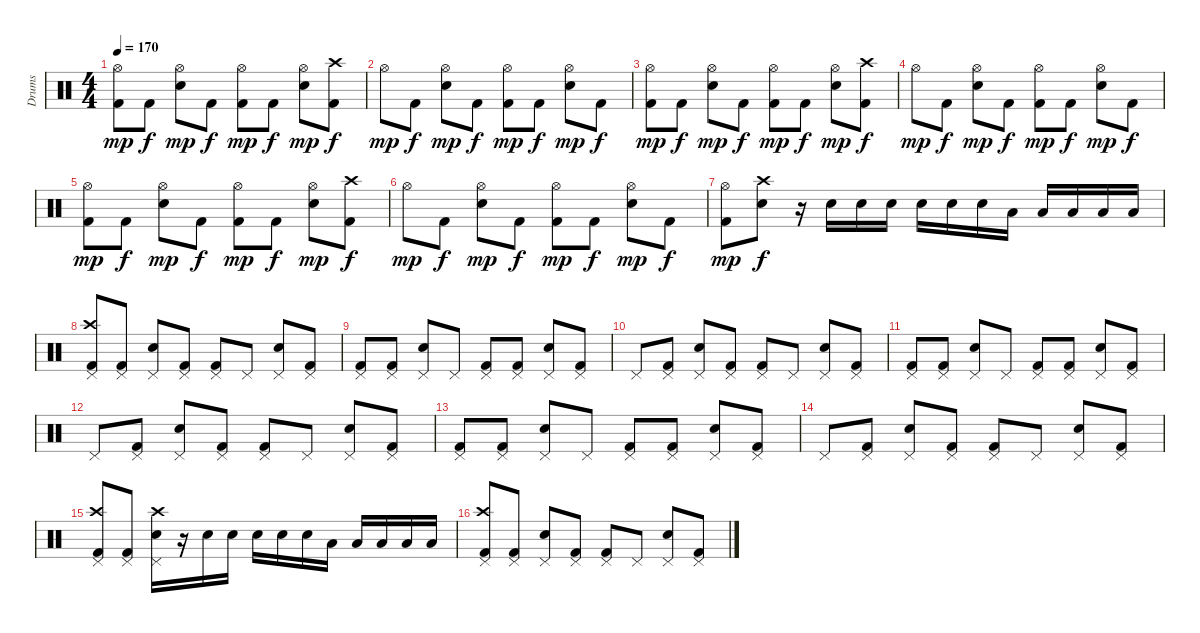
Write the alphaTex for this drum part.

\track ("Drums" "Drums") {instrument percussion}
\staff {score}
\articulation defaults
\ts (4 4)
\tempo 170
\clef neutral
\ks c
("Hi-Hat (open)" "Kick (hit) 2").8{dy mp} "Kick (hit) 2".8{dy f} ("Hi-Hat (open)" "Electric Snare (hit)").8{dy mp} "Kick (hit) 2".8{dy f} ("Hi-Hat (open)" "Kick (hit) 2").8{dy mp} "Kick (hit) 2".8{dy f} ("Hi-Hat (open)" "Electric Snare (hit)").8{dy mp} ("Crash high (hit)" "Kick (hit) 2").8{dy f} |
"Hi-Hat (open)".8{dy mp} "Kick (hit) 2".8{dy f} ("Hi-Hat (open)" "Electric Snare (hit)").8{dy mp} "Kick (hit) 2".8{dy f} ("Hi-Hat (open)" "Kick (hit) 2").8{dy mp} "Kick (hit) 2".8{dy f} ("Hi-Hat (open)" "Electric Snare (hit)").8{dy mp} "Kick (hit) 2".8{dy f} |
("Hi-Hat (open)" "Kick (hit) 2").8{dy mp} "Kick (hit) 2".8{dy f} ("Hi-Hat (open)" "Electric Snare (hit)").8{dy mp} "Kick (hit) 2".8{dy f} ("Hi-Hat (open)" "Kick (hit) 2").8{dy mp} "Kick (hit) 2".8{dy f} ("Hi-Hat (open)" "Electric Snare (hit)").8{dy mp} ("Crash high (hit)" "Kick (hit) 2").8{dy f} |
"Hi-Hat (open)".8{dy mp} "Kick (hit) 2".8{dy f} ("Hi-Hat (open)" "Electric Snare (hit)").8{dy mp} "Kick (hit) 2".8{dy f} ("Hi-Hat (open)" "Kick (hit) 2").8{dy mp} "Kick (hit) 2".8{dy f} ("Hi-Hat (open)" "Electric Snare (hit)").8{dy mp} "Kick (hit) 2".8{dy f} |
("Hi-Hat (open)" "Kick (hit) 2").8{dy mp} "Kick (hit) 2".8{dy f} ("Hi-Hat (open)" "Electric Snare (hit)").8{dy mp} "Kick (hit) 2".8{dy f} ("Hi-Hat (open)" "Kick (hit) 2").8{dy mp} "Kick (hit) 2".8{dy f} ("Hi-Hat (open)" "Electric Snare (hit)").8{dy mp} ("Crash high (hit)" "Kick (hit) 2").8{dy f} |
"Hi-Hat (open)".8{dy mp} "Kick (hit) 2".8{dy f} ("Hi-Hat (open)" "Electric Snare (hit)").8{dy mp} "Kick (hit) 2".8{dy f} ("Hi-Hat (open)" "Kick (hit) 2").8{dy mp} "Kick (hit) 2".8{dy f} ("Hi-Hat (open)" "Electric Snare (hit)").8{dy mp} "Kick (hit) 2".8{dy f} |
("Hi-Hat (open)" "Kick (hit) 2").8{dy mp} ("Crash high (hit)" "Electric Snare (hit)").8{dy f} r.16 "Electric Snare (hit)".16 "Electric Snare (hit)".16 "Electric Snare (hit)".16 "Electric Snare (hit)".16 "Electric Snare (hit)".16 "Electric Snare (hit)".16 "Low Floor Tom (hit)".16 "Low Floor Tom (hit)".16 "Low Floor Tom (hit)".16 "Low Floor Tom (hit)".16 "Low Floor Tom (hit)".16 |
("Crash high (hit)" "Pedal Hi-Hat (hit)" "Kick (hit) 2").8 ("Pedal Hi-Hat (hit)" "Kick (hit) 2").8 ("Pedal Hi-Hat (hit)" "Snare (hit) 2").8 ("Pedal Hi-Hat (hit)" "Kick (hit) 2").8 ("Pedal Hi-Hat (hit)" "Kick (hit) 2").8 "Pedal Hi-Hat (hit)".8 ("Pedal Hi-Hat (hit)" "Snare (hit) 2").8 ("Pedal Hi-Hat (hit)" "Kick (hit) 2").8 |
("Pedal Hi-Hat (hit)" "Kick (hit) 2").8 ("Pedal Hi-Hat (hit)" "Kick (hit) 2").8 ("Pedal Hi-Hat (hit)" "Snare (hit) 2").8 "Pedal Hi-Hat (hit)".8 ("Pedal Hi-Hat (hit)" "Kick (hit) 2").8 ("Pedal Hi-Hat (hit)" "Kick (hit) 2").8 ("Pedal Hi-Hat (hit)" "Snare (hit) 2").8 ("Pedal Hi-Hat (hit)" "Kick (hit) 2").8 |
"Pedal Hi-Hat (hit)".8 ("Pedal Hi-Hat (hit)" "Kick (hit) 2").8 ("Pedal Hi-Hat (hit)" "Snare (hit) 2").8 ("Pedal Hi-Hat (hit)" "Kick (hit) 2").8 ("Pedal Hi-Hat (hit)" "Kick (hit) 2").8 "Pedal Hi-Hat (hit)".8 ("Pedal Hi-Hat (hit)" "Snare (hit) 2").8 ("Pedal Hi-Hat (hit)" "Kick (hit) 2").8 |
("Pedal Hi-Hat (hit)" "Kick (hit) 2").8 ("Pedal Hi-Hat (hit)" "Kick (hit) 2").8 ("Pedal Hi-Hat (hit)" "Snare (hit) 2").8 "Pedal Hi-Hat (hit)".8 ("Pedal Hi-Hat (hit)" "Kick (hit) 2").8 ("Pedal Hi-Hat (hit)" "Kick (hit) 2").8 ("Pedal Hi-Hat (hit)" "Snare (hit) 2").8 ("Pedal Hi-Hat (hit)" "Kick (hit) 2").8 |
"Pedal Hi-Hat (hit)".8 ("Pedal Hi-Hat (hit)" "Kick (hit) 2").8 ("Pedal Hi-Hat (hit)" "Snare (hit) 2").8 ("Pedal Hi-Hat (hit)" "Kick (hit) 2").8 ("Pedal Hi-Hat (hit)" "Kick (hit) 2").8 "Pedal Hi-Hat (hit)".8 ("Pedal Hi-Hat (hit)" "Snare (hit) 2").8 ("Pedal Hi-Hat (hit)" "Kick (hit) 2").8 |
("Pedal Hi-Hat (hit)" "Kick (hit) 2").8 ("Pedal Hi-Hat (hit)" "Kick (hit) 2").8 ("Pedal Hi-Hat (hit)" "Snare (hit) 2").8 "Pedal Hi-Hat (hit)".8 ("Pedal Hi-Hat (hit)" "Kick (hit) 2").8 ("Pedal Hi-Hat (hit)" "Kick (hit) 2").8 ("Pedal Hi-Hat (hit)" "Snare (hit) 2").8 ("Pedal Hi-Hat (hit)" "Kick (hit) 2").8 |
"Pedal Hi-Hat (hit)".8 ("Pedal Hi-Hat (hit)" "Kick (hit) 2").8 ("Pedal Hi-Hat (hit)" "Snare (hit) 2").8 ("Pedal Hi-Hat (hit)" "Kick (hit) 2").8 ("Pedal Hi-Hat (hit)" "Kick (hit) 2").8 "Pedal Hi-Hat (hit)".8 ("Pedal Hi-Hat (hit)" "Snare (hit) 2").8 ("Pedal Hi-Hat (hit)" "Kick (hit) 2").8 |
("Crash high (hit)" "Pedal Hi-Hat (hit)" "Kick (hit) 2").8 ("Pedal Hi-Hat (hit)" "Kick (hit) 2").8 ("Crash high (hit)" "Pedal Hi-Hat (hit)" "Snare (hit) 2").16 r.16 "Snare (hit) 2".16 "Snare (hit) 2".16 "Snare (hit) 2".16 "Snare (hit) 2".16 "Snare (hit) 2".16 "Low Floor Tom (hit)".16 "Low Floor Tom (hit)".16 "Low Floor Tom (hit)".16 "Low Floor Tom (hit)".16 "Low Floor Tom (hit)".16 |
("Crash high (hit)" "Pedal Hi-Hat (hit)" "Kick (hit) 2").8 ("Pedal Hi-Hat (hit)" "Kick (hit) 2").8 ("Pedal Hi-Hat (hit)" "Snare (hit) 2").8 ("Pedal Hi-Hat (hit)" "Kick (hit) 2").8 ("Pedal Hi-Hat (hit)" "Kick (hit) 2").8 "Pedal Hi-Hat (hit)".8 ("Pedal Hi-Hat (hit)" "Snare (hit) 2").8 ("Pedal Hi-Hat (hit)" "Kick (hit) 2").8
